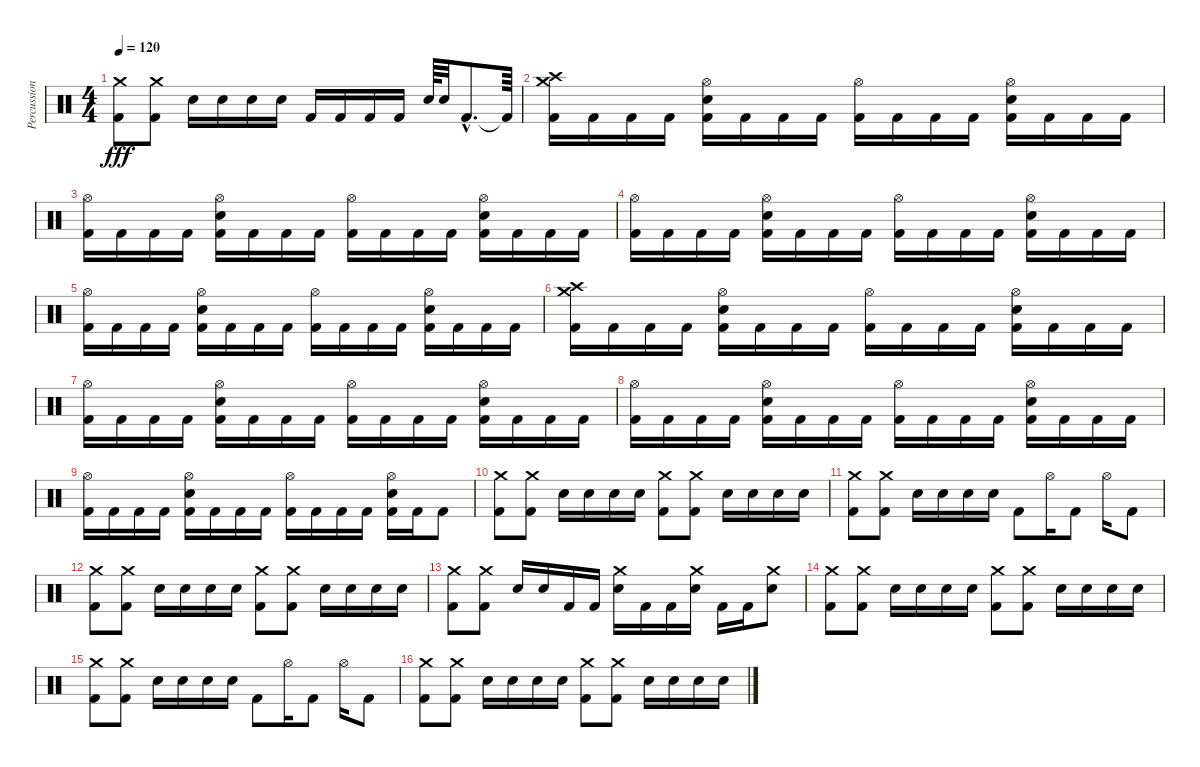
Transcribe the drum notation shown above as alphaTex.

\track ("Percussion" "Percussion") {instrument percussion}
\staff {score}
\articulation defaults
\ts (4 4)
\tempo 120
\clef neutral
\ks c
("Kick (hit) 2" "Crash medium (hit)").8{dy fff} ("Kick (hit) 2" "Crash medium (hit)").8 "Electric Snare (hit)".16 "Electric Snare (hit)".16 "Electric Snare (hit)".16 "Electric Snare (hit)".16 "Kick (hit) 2".16 "Kick (hit) 2".16 "Kick (hit) 2".16 "Kick (hit) 2".16 "Electric Snare (hit)".64 "Electric Snare (hit)".32 "Kick (hit) 2"{hac}.8{d} "Kick (hit) 2"{t}.64 |
("Kick (hit) 2" "Crash high (hit)" "Crash medium (hit)").16 "Kick (hit) 2".16 "Kick (hit) 2".16 "Kick (hit) 2".16 ("Kick (hit) 2" "Electric Snare (hit)" "Hi-Hat (open)").16 "Kick (hit) 2".16 "Kick (hit) 2".16 "Kick (hit) 2".16 ("Kick (hit) 2" "Hi-Hat (open)").16 "Kick (hit) 2".16 "Kick (hit) 2".16 "Kick (hit) 2".16 ("Kick (hit) 2" "Electric Snare (hit)" "Hi-Hat (open)").16 "Kick (hit) 2".16 "Kick (hit) 2".16 "Kick (hit) 2".16 |
("Kick (hit) 2" "Hi-Hat (open)").16 "Kick (hit) 2".16 "Kick (hit) 2".16 "Kick (hit) 2".16 ("Kick (hit) 2" "Electric Snare (hit)" "Hi-Hat (open)").16 "Kick (hit) 2".16 "Kick (hit) 2".16 "Kick (hit) 2".16 ("Kick (hit) 2" "Hi-Hat (open)").16 "Kick (hit) 2".16 "Kick (hit) 2".16 "Kick (hit) 2".16 ("Kick (hit) 2" "Electric Snare (hit)" "Hi-Hat (open)").16 "Kick (hit) 2".16 "Kick (hit) 2".16 "Kick (hit) 2".16 |
("Kick (hit) 2" "Hi-Hat (open)").16 "Kick (hit) 2".16 "Kick (hit) 2".16 "Kick (hit) 2".16 ("Kick (hit) 2" "Electric Snare (hit)" "Hi-Hat (open)").16 "Kick (hit) 2".16 "Kick (hit) 2".16 "Kick (hit) 2".16 ("Kick (hit) 2" "Hi-Hat (open)").16 "Kick (hit) 2".16 "Kick (hit) 2".16 "Kick (hit) 2".16 ("Kick (hit) 2" "Electric Snare (hit)" "Hi-Hat (open)").16 "Kick (hit) 2".16 "Kick (hit) 2".16 "Kick (hit) 2".16 |
("Kick (hit) 2" "Hi-Hat (open)").16 "Kick (hit) 2".16 "Kick (hit) 2".16 "Kick (hit) 2".16 ("Kick (hit) 2" "Electric Snare (hit)" "Hi-Hat (open)").16 "Kick (hit) 2".16 "Kick (hit) 2".16 "Kick (hit) 2".16 ("Kick (hit) 2" "Hi-Hat (open)").16 "Kick (hit) 2".16 "Kick (hit) 2".16 "Kick (hit) 2".16 ("Kick (hit) 2" "Electric Snare (hit)" "Hi-Hat (open)").16 "Kick (hit) 2".16 "Kick (hit) 2".16 "Kick (hit) 2".16 |
("Kick (hit) 2" "Crash high (hit)" "Crash medium (hit)").16 "Kick (hit) 2".16 "Kick (hit) 2".16 "Kick (hit) 2".16 ("Kick (hit) 2" "Electric Snare (hit)" "Hi-Hat (open)").16 "Kick (hit) 2".16 "Kick (hit) 2".16 "Kick (hit) 2".16 ("Kick (hit) 2" "Hi-Hat (open)").16 "Kick (hit) 2".16 "Kick (hit) 2".16 "Kick (hit) 2".16 ("Kick (hit) 2" "Electric Snare (hit)" "Hi-Hat (open)").16 "Kick (hit) 2".16 "Kick (hit) 2".16 "Kick (hit) 2".16 |
("Kick (hit) 2" "Hi-Hat (open)").16 "Kick (hit) 2".16 "Kick (hit) 2".16 "Kick (hit) 2".16 ("Kick (hit) 2" "Electric Snare (hit)" "Hi-Hat (open)").16 "Kick (hit) 2".16 "Kick (hit) 2".16 "Kick (hit) 2".16 ("Kick (hit) 2" "Hi-Hat (open)").16 "Kick (hit) 2".16 "Kick (hit) 2".16 "Kick (hit) 2".16 ("Kick (hit) 2" "Electric Snare (hit)" "Hi-Hat (open)").16 "Kick (hit) 2".16 "Kick (hit) 2".16 "Kick (hit) 2".16 |
("Kick (hit) 2" "Hi-Hat (open)").16 "Kick (hit) 2".16 "Kick (hit) 2".16 "Kick (hit) 2".16 ("Kick (hit) 2" "Electric Snare (hit)" "Hi-Hat (open)").16 "Kick (hit) 2".16 "Kick (hit) 2".16 "Kick (hit) 2".16 ("Kick (hit) 2" "Hi-Hat (open)").16 "Kick (hit) 2".16 "Kick (hit) 2".16 "Kick (hit) 2".16 ("Kick (hit) 2" "Electric Snare (hit)" "Hi-Hat (open)").16 "Kick (hit) 2".16 "Kick (hit) 2".16 "Kick (hit) 2".16 |
("Kick (hit) 2" "Hi-Hat (open)").16 "Kick (hit) 2".16 "Kick (hit) 2".16 "Kick (hit) 2".16 ("Kick (hit) 2" "Electric Snare (hit)" "Hi-Hat (open)").16 "Kick (hit) 2".16 "Kick (hit) 2".16 "Kick (hit) 2".16 ("Kick (hit) 2" "Hi-Hat (open)").16 "Kick (hit) 2".16 "Kick (hit) 2".16 "Kick (hit) 2".16 ("Kick (hit) 2" "Electric Snare (hit)" "Hi-Hat (open)").16 "Kick (hit) 2".16 "Kick (hit) 2".8 |
("Kick (hit) 2" "Crash medium (hit)").8 ("Kick (hit) 2" "Crash medium (hit)").8 "Electric Snare (hit)".16 "Electric Snare (hit)".16 "Electric Snare (hit)".16 "Electric Snare (hit)".16 ("Kick (hit) 2" "Crash medium (hit)").8 ("Kick (hit) 2" "Crash medium (hit)").8 "Electric Snare (hit)".16 "Electric Snare (hit)".16 "Electric Snare (hit)".16 "Electric Snare (hit)".16 |
("Kick (hit) 2" "Crash medium (hit)").8 ("Kick (hit) 2" "Crash medium (hit)").8 "Electric Snare (hit)".16 "Electric Snare (hit)".16 "Electric Snare (hit)".16 "Electric Snare (hit)".16 "Kick (hit) 2".8 "Hi-Hat (open)".16 "Kick (hit) 2".8 "Hi-Hat (open)".16 "Kick (hit) 2".8 |
("Kick (hit) 2" "Crash medium (hit)").8 ("Kick (hit) 2" "Crash medium (hit)").8 "Electric Snare (hit)".16 "Electric Snare (hit)".16 "Electric Snare (hit)".16 "Electric Snare (hit)".16 ("Kick (hit) 2" "Crash medium (hit)").8 ("Kick (hit) 2" "Crash medium (hit)").8 "Electric Snare (hit)".16 "Electric Snare (hit)".16 "Electric Snare (hit)".16 "Electric Snare (hit)".16 |
("Kick (hit) 2" "Crash medium (hit)").8 ("Kick (hit) 2" "Crash medium (hit)").8 "Electric Snare (hit)".16 "Electric Snare (hit)".16 "Kick (hit) 2".16 "Kick (hit) 2".16 ("Electric Snare (hit)" "Crash medium (hit)").16 "Kick (hit) 2".16 "Kick (hit) 2".16 ("Electric Snare (hit)" "Crash medium (hit)").16 "Kick (hit) 2".16 "Kick (hit) 2".16 ("Electric Snare (hit)" "Crash medium (hit)").8 |
("Kick (hit) 2" "Crash medium (hit)").8 ("Kick (hit) 2" "Crash medium (hit)").8 "Electric Snare (hit)".16 "Electric Snare (hit)".16 "Electric Snare (hit)".16 "Electric Snare (hit)".16 ("Kick (hit) 2" "Crash medium (hit)").8 ("Kick (hit) 2" "Crash medium (hit)").8 "Electric Snare (hit)".16 "Electric Snare (hit)".16 "Electric Snare (hit)".16 "Electric Snare (hit)".16 |
("Kick (hit) 2" "Crash medium (hit)").8 ("Kick (hit) 2" "Crash medium (hit)").8 "Electric Snare (hit)".16 "Electric Snare (hit)".16 "Electric Snare (hit)".16 "Electric Snare (hit)".16 "Kick (hit) 2".8 "Hi-Hat (open)".16 "Kick (hit) 2".8 "Hi-Hat (open)".16 "Kick (hit) 2".8 |
("Kick (hit) 2" "Crash medium (hit)").8 ("Kick (hit) 2" "Crash medium (hit)").8 "Electric Snare (hit)".16 "Electric Snare (hit)".16 "Electric Snare (hit)".16 "Electric Snare (hit)".16 ("Kick (hit) 2" "Crash medium (hit)").8 ("Kick (hit) 2" "Crash medium (hit)").8 "Electric Snare (hit)".16 "Electric Snare (hit)".16 "Electric Snare (hit)".16 "Electric Snare (hit)".16
